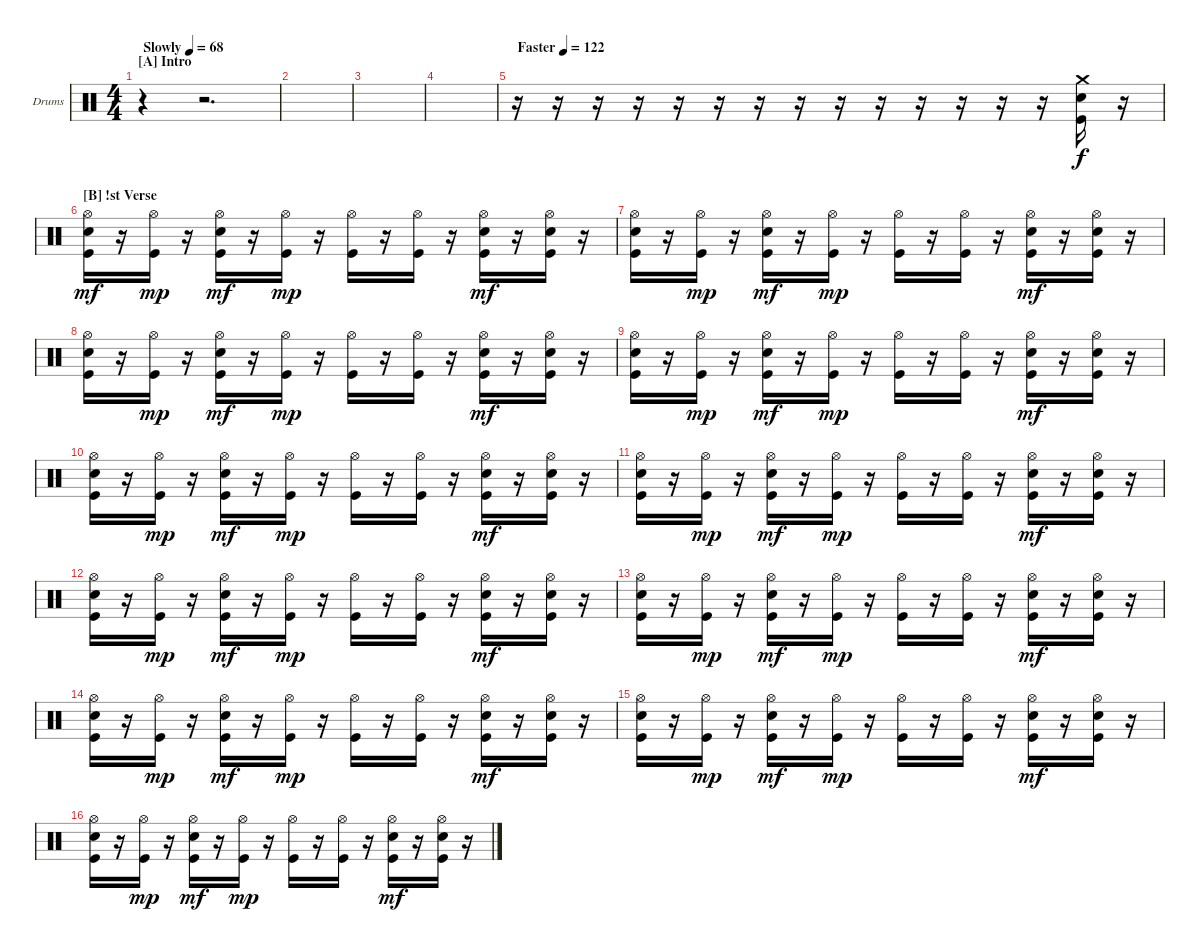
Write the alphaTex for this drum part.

\bracketExtendMode groupsimilarinstruments
\firstSystemTrackNameOrientation horizontal
\otherSystemsTrackNameOrientation horizontal
\track ("Drumkit" "Drums") {instrument percussion}
\staff {score}
\articulation defaults
\ts (4 4)
\section ("A" "Intro")
\tempo (68 "Slowly")
\clef neutral
\ks c
r.4{dy f} r.2{d} |
|
|
|
\tempo (122 "Faster")
r.16 r.16 r.16 r.16 r.16 r.16 r.16 r.16 r.16 r.16 r.16 r.16 r.16 r.16 ("Crash medium (hit)" "Snare (hit) 2" "Kick (hit)").16 r.16 |
\section ("B" "!st Verse")
("Hi-Hat (open)" "Snare (hit) 2" "Kick (hit)").16{dy mf} r.16 ("Hi-Hat (open)" "Kick (hit)").16{dy mp} r.16 ("Hi-Hat (open)" "Snare (hit) 2" "Kick (hit)").16{dy mf} r.16 ("Hi-Hat (open)" "Kick (hit)").16{dy mp} r.16 ("Hi-Hat (open)" "Kick (hit)").16 r.16 ("Hi-Hat (open)" "Kick (hit)").16 r.16 ("Hi-Hat (open)" "Snare (hit) 2" "Kick (hit)").16{dy mf} r.16 ("Hi-Hat (open)" "Snare (hit) 2" "Kick (hit)").16 r.16 |
("Hi-Hat (open)" "Snare (hit) 2" "Kick (hit)").16 r.16 ("Hi-Hat (open)" "Kick (hit)").16{dy mp} r.16 ("Hi-Hat (open)" "Snare (hit) 2" "Kick (hit)").16{dy mf} r.16 ("Hi-Hat (open)" "Kick (hit)").16{dy mp} r.16 ("Hi-Hat (open)" "Kick (hit)").16 r.16 ("Hi-Hat (open)" "Kick (hit)").16 r.16 ("Hi-Hat (open)" "Snare (hit) 2" "Kick (hit)").16{dy mf} r.16 ("Hi-Hat (open)" "Snare (hit) 2" "Kick (hit)").16 r.16 |
("Hi-Hat (open)" "Snare (hit) 2" "Kick (hit)").16 r.16 ("Hi-Hat (open)" "Kick (hit)").16{dy mp} r.16 ("Hi-Hat (open)" "Snare (hit) 2" "Kick (hit)").16{dy mf} r.16 ("Hi-Hat (open)" "Kick (hit)").16{dy mp} r.16 ("Hi-Hat (open)" "Kick (hit)").16 r.16 ("Hi-Hat (open)" "Kick (hit)").16 r.16 ("Hi-Hat (open)" "Snare (hit) 2" "Kick (hit)").16{dy mf} r.16 ("Hi-Hat (open)" "Snare (hit) 2" "Kick (hit)").16 r.16 |
("Hi-Hat (open)" "Snare (hit) 2" "Kick (hit)").16 r.16 ("Hi-Hat (open)" "Kick (hit)").16{dy mp} r.16 ("Hi-Hat (open)" "Snare (hit) 2" "Kick (hit)").16{dy mf} r.16 ("Hi-Hat (open)" "Kick (hit)").16{dy mp} r.16 ("Hi-Hat (open)" "Kick (hit)").16 r.16 ("Hi-Hat (open)" "Kick (hit)").16 r.16 ("Hi-Hat (open)" "Snare (hit) 2" "Kick (hit)").16{dy mf} r.16 ("Hi-Hat (open)" "Snare (hit) 2" "Kick (hit)").16 r.16 |
("Hi-Hat (open)" "Snare (hit) 2" "Kick (hit)").16 r.16 ("Hi-Hat (open)" "Kick (hit)").16{dy mp} r.16 ("Hi-Hat (open)" "Snare (hit) 2" "Kick (hit)").16{dy mf} r.16 ("Hi-Hat (open)" "Kick (hit)").16{dy mp} r.16 ("Hi-Hat (open)" "Kick (hit)").16 r.16 ("Hi-Hat (open)" "Kick (hit)").16 r.16 ("Hi-Hat (open)" "Snare (hit) 2" "Kick (hit)").16{dy mf} r.16 ("Hi-Hat (open)" "Snare (hit) 2" "Kick (hit)").16 r.16 |
("Hi-Hat (open)" "Snare (hit) 2" "Kick (hit)").16 r.16 ("Hi-Hat (open)" "Kick (hit)").16{dy mp} r.16 ("Hi-Hat (open)" "Snare (hit) 2" "Kick (hit)").16{dy mf} r.16 ("Hi-Hat (open)" "Kick (hit)").16{dy mp} r.16 ("Hi-Hat (open)" "Kick (hit)").16 r.16 ("Hi-Hat (open)" "Kick (hit)").16 r.16 ("Hi-Hat (open)" "Snare (hit) 2" "Kick (hit)").16{dy mf} r.16 ("Hi-Hat (open)" "Snare (hit) 2" "Kick (hit)").16 r.16 |
("Hi-Hat (open)" "Snare (hit) 2" "Kick (hit)").16 r.16 ("Hi-Hat (open)" "Kick (hit)").16{dy mp} r.16 ("Hi-Hat (open)" "Snare (hit) 2" "Kick (hit)").16{dy mf} r.16 ("Hi-Hat (open)" "Kick (hit)").16{dy mp} r.16 ("Hi-Hat (open)" "Kick (hit)").16 r.16 ("Hi-Hat (open)" "Kick (hit)").16 r.16 ("Hi-Hat (open)" "Snare (hit) 2" "Kick (hit)").16{dy mf} r.16 ("Hi-Hat (open)" "Snare (hit) 2" "Kick (hit)").16 r.16 |
("Hi-Hat (open)" "Snare (hit) 2" "Kick (hit)").16 r.16 ("Hi-Hat (open)" "Kick (hit)").16{dy mp} r.16 ("Hi-Hat (open)" "Snare (hit) 2" "Kick (hit)").16{dy mf} r.16 ("Hi-Hat (open)" "Kick (hit)").16{dy mp} r.16 ("Hi-Hat (open)" "Kick (hit)").16 r.16 ("Hi-Hat (open)" "Kick (hit)").16 r.16 ("Hi-Hat (open)" "Snare (hit) 2" "Kick (hit)").16{dy mf} r.16 ("Hi-Hat (open)" "Snare (hit) 2" "Kick (hit)").16 r.16 |
("Hi-Hat (open)" "Snare (hit) 2" "Kick (hit)").16 r.16 ("Hi-Hat (open)" "Kick (hit)").16{dy mp} r.16 ("Hi-Hat (open)" "Snare (hit) 2" "Kick (hit)").16{dy mf} r.16 ("Hi-Hat (open)" "Kick (hit)").16{dy mp} r.16 ("Hi-Hat (open)" "Kick (hit)").16 r.16 ("Hi-Hat (open)" "Kick (hit)").16 r.16 ("Hi-Hat (open)" "Snare (hit) 2" "Kick (hit)").16{dy mf} r.16 ("Hi-Hat (open)" "Snare (hit) 2" "Kick (hit)").16 r.16 |
("Hi-Hat (open)" "Snare (hit) 2" "Kick (hit)").16 r.16 ("Hi-Hat (open)" "Kick (hit)").16{dy mp} r.16 ("Hi-Hat (open)" "Snare (hit) 2" "Kick (hit)").16{dy mf} r.16 ("Hi-Hat (open)" "Kick (hit)").16{dy mp} r.16 ("Hi-Hat (open)" "Kick (hit)").16 r.16 ("Hi-Hat (open)" "Kick (hit)").16 r.16 ("Hi-Hat (open)" "Snare (hit) 2" "Kick (hit)").16{dy mf} r.16 ("Hi-Hat (open)" "Snare (hit) 2" "Kick (hit)").16 r.16 |
("Hi-Hat (open)" "Snare (hit) 2" "Kick (hit)").16 r.16 ("Hi-Hat (open)" "Kick (hit)").16{dy mp} r.16 ("Hi-Hat (open)" "Snare (hit) 2" "Kick (hit)").16{dy mf} r.16 ("Hi-Hat (open)" "Kick (hit)").16{dy mp} r.16 ("Hi-Hat (open)" "Kick (hit)").16 r.16 ("Hi-Hat (open)" "Kick (hit)").16 r.16 ("Hi-Hat (open)" "Snare (hit) 2" "Kick (hit)").16{dy mf} r.16 ("Hi-Hat (open)" "Snare (hit) 2" "Kick (hit)").16 r.16
